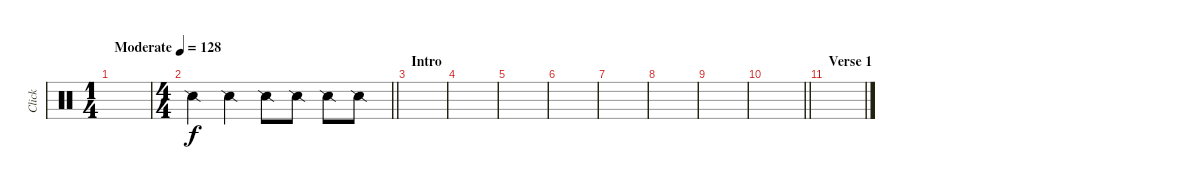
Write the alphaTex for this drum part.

\track ("Click" "Click") {instrument percussion}
\staff {score}
\articulation defaults
\ts (1 4)
\tempo (128 "Moderate")
\clef neutral
\ks c
|
\ts (4 4)
\barLineRight lightlight "Snare (side stick) 2".4 "Snare (side stick) 2".4 "Snare (side stick) 2".8 "Snare (side stick) 2".8 "Snare (side stick) 2".8 "Snare (side stick) 2".8
|
\section ("" "Intro")
|
|
|
|
|
|
|
\barLineRight lightlight
|
\section ("" "Verse 1")
